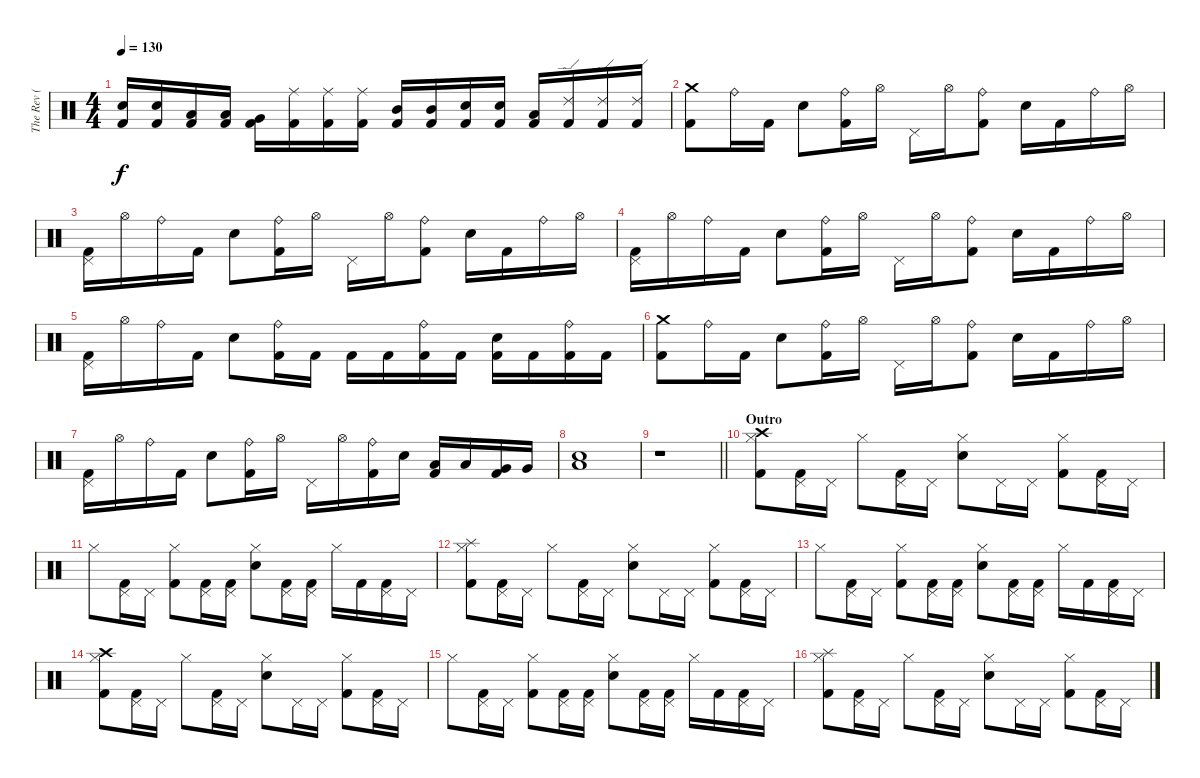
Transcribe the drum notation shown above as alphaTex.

\track ("The Rev ( Drums )" "The Rev ( ") {instrument percussion}
\staff {score}
\articulation defaults
\ts (4 4)
\tempo 130
\clef neutral
\ks c
("Snare (hit) 2" "Kick (hit) 2").16{dy f} ("Snare (hit) 2" "Kick (hit) 2").16 ("Low Tom (hit)" "Kick (hit) 2").16 ("Low Tom (hit)" "Kick (hit) 2").16 ("Very Low Tom (hit)" "Kick (hit) 2").16 ("Ride (middle)" "Kick (hit) 2").16 ("Ride (middle)" "Kick (hit) 2").16 ("Ride (middle)" "Kick (hit) 2").16 ("Mid Tom (hit)" "Kick (hit) 2").16 ("Mid Tom (hit)" "Kick (hit) 2").16 ("Snare (hit) 2" "Kick (hit) 2").16 ("Snare (hit) 2" "Kick (hit) 2").16 ("Low Tom (hit)" "Kick (hit) 2").16 ("Ride (edge) 2" "Kick (hit) 2").16 ("Ride (edge) 2" "Kick (hit) 2").16 ("Ride (edge) 2" "Kick (hit) 2").16 |
("Crash medium (hit)" "Kick (hit) 2").8 "Ride (bell)".16 "Kick (hit) 2".16 "Snare (hit) 2".8 ("Ride (bell)" "Kick (hit) 2").16 "Hi-Hat (open)".16 "Pedal Hi-Hat (hit)".16 "Hi-Hat (open)".16 ("Ride (bell)" "Kick (hit) 2").8 "Snare (hit) 2".16 "Kick (hit) 2".16 "Ride (bell)".16 "Hi-Hat (open)".16 |
("Pedal Hi-Hat (hit)" "Kick (hit) 2").16 "Hi-Hat (open)".16 "Ride (bell)".16 "Kick (hit) 2".16 "Snare (hit) 2".8 ("Ride (bell)" "Kick (hit) 2").16 "Hi-Hat (open)".16 "Pedal Hi-Hat (hit)".16 "Hi-Hat (open)".16 ("Ride (bell)" "Kick (hit) 2").8 "Snare (hit) 2".16 "Kick (hit) 2".16 "Ride (bell)".16 "Hi-Hat (open)".16 |
("Pedal Hi-Hat (hit)" "Kick (hit) 2").16 "Hi-Hat (open)".16 "Ride (bell)".16 "Kick (hit) 2".16 "Snare (hit) 2".8 ("Ride (bell)" "Kick (hit) 2").16 "Hi-Hat (open)".16 "Pedal Hi-Hat (hit)".16 "Hi-Hat (open)".16 ("Ride (bell)" "Kick (hit) 2").8 "Snare (hit) 2".16 "Kick (hit) 2".16 "Ride (bell)".16 "Hi-Hat (open)".16 |
("Pedal Hi-Hat (hit)" "Kick (hit) 2").16 "Hi-Hat (open)".16 "Ride (bell)".16 "Kick (hit) 2".16 "Snare (hit) 2".8 ("Ride (bell)" "Kick (hit) 2").16 "Kick (hit) 2".16 "Kick (hit) 2".16 "Kick (hit) 2".16 ("Ride (bell)" "Kick (hit) 2").16 "Kick (hit) 2".16 ("Snare (hit) 2" "Kick (hit) 2").16 "Kick (hit) 2".16 ("Ride (bell)" "Kick (hit) 2").16 "Kick (hit) 2".16 |
("Crash medium (hit)" "Kick (hit) 2").8 "Ride (bell)".16 "Kick (hit) 2".16 "Snare (hit) 2".8 ("Ride (bell)" "Kick (hit) 2").16 "Hi-Hat (open)".16 "Pedal Hi-Hat (hit)".16 "Hi-Hat (open)".16 ("Ride (bell)" "Kick (hit) 2").8 "Snare (hit) 2".16 "Kick (hit) 2".16 "Ride (bell)".16 "Hi-Hat (open)".16 |
("Pedal Hi-Hat (hit)" "Kick (hit) 2").16 "Hi-Hat (open)".16 "Ride (bell)".16 "Kick (hit) 2".16 "Snare (hit) 2".8 ("Ride (bell)" "Kick (hit) 2").16 "Hi-Hat (open)".16 "Pedal Hi-Hat (hit)".16 "Hi-Hat (open)".16 ("Ride (bell)" "Kick (hit) 2").16 "Snare (hit) 2".16 ("Low Tom (hit)" "Kick (hit) 2").16 "Low Tom (hit)".16 ("Very Low Tom (hit)" "Kick (hit) 2").16 "Very Low Tom (hit)".16 |
("Low Floor Tom (hit)" "Snare (hit) 2").1 |
\barLineRight lightlight
r.1 |
\section ("" "Outro")
("Crash high (hit)" "Hi-Hat (closed)" "Kick (hit) 2").8 ("Pedal Hi-Hat (hit)" "Kick (hit) 2").16 "Pedal Hi-Hat (hit)".16 "Hi-Hat (closed)".8 ("Pedal Hi-Hat (hit)" "Kick (hit) 2").16 "Pedal Hi-Hat (hit)".16 ("Hi-Hat (closed)" "Snare (hit) 2").8 "Pedal Hi-Hat (hit)".16 "Pedal Hi-Hat (hit)".16 ("Hi-Hat (closed)" "Kick (hit) 2").8 ("Pedal Hi-Hat (hit)" "Kick (hit) 2").16 "Pedal Hi-Hat (hit)".16 |
"Hi-Hat (closed)".8 ("Pedal Hi-Hat (hit)" "Kick (hit) 2").16 "Pedal Hi-Hat (hit)".16 ("Hi-Hat (closed)" "Kick (hit) 2").8 ("Pedal Hi-Hat (hit)" "Kick (hit) 2").16 ("Pedal Hi-Hat (hit)" "Kick (hit) 2").16 ("Hi-Hat (closed)" "Snare (hit) 2").8 ("Pedal Hi-Hat (hit)" "Kick (hit) 2").16 ("Pedal Hi-Hat (hit)" "Kick (hit) 2").16 "Hi-Hat (closed)".16 "Kick (hit) 2".16 ("Pedal Hi-Hat (hit)" "Kick (hit) 2").16 "Pedal Hi-Hat (hit)".16 |
("Splash (hit)" "Hi-Hat (closed)" "Kick (hit) 2").8 ("Pedal Hi-Hat (hit)" "Kick (hit) 2").16 "Pedal Hi-Hat (hit)".16 "Hi-Hat (closed)".8 ("Pedal Hi-Hat (hit)" "Kick (hit) 2").16 "Pedal Hi-Hat (hit)".16 ("Hi-Hat (closed)" "Snare (hit) 2").8 "Pedal Hi-Hat (hit)".16 "Pedal Hi-Hat (hit)".16 ("Hi-Hat (closed)" "Kick (hit) 2").8 ("Pedal Hi-Hat (hit)" "Kick (hit) 2").16 "Pedal Hi-Hat (hit)".16 |
"Hi-Hat (closed)".8 ("Pedal Hi-Hat (hit)" "Kick (hit) 2").16 "Pedal Hi-Hat (hit)".16 ("Hi-Hat (closed)" "Kick (hit) 2").8 ("Pedal Hi-Hat (hit)" "Kick (hit) 2").16 ("Pedal Hi-Hat (hit)" "Kick (hit) 2").16 ("Hi-Hat (closed)" "Snare (hit) 2").8 ("Pedal Hi-Hat (hit)" "Kick (hit) 2").16 ("Pedal Hi-Hat (hit)" "Kick (hit) 2").16 "Hi-Hat (closed)".16 "Kick (hit) 2".16 ("Pedal Hi-Hat (hit)" "Kick (hit) 2").16 "Pedal Hi-Hat (hit)".16 |
("Crash high (hit)" "Hi-Hat (closed)" "Kick (hit) 2").8 ("Pedal Hi-Hat (hit)" "Kick (hit) 2").16 "Pedal Hi-Hat (hit)".16 "Hi-Hat (closed)".8 ("Pedal Hi-Hat (hit)" "Kick (hit) 2").16 "Pedal Hi-Hat (hit)".16 ("Hi-Hat (closed)" "Snare (hit) 2").8 "Pedal Hi-Hat (hit)".16 "Pedal Hi-Hat (hit)".16 ("Hi-Hat (closed)" "Kick (hit) 2").8 ("Pedal Hi-Hat (hit)" "Kick (hit) 2").16 "Pedal Hi-Hat (hit)".16 |
"Hi-Hat (closed)".8 ("Pedal Hi-Hat (hit)" "Kick (hit) 2").16 "Pedal Hi-Hat (hit)".16 ("Hi-Hat (closed)" "Kick (hit) 2").8 ("Pedal Hi-Hat (hit)" "Kick (hit) 2").16 ("Pedal Hi-Hat (hit)" "Kick (hit) 2").16 ("Hi-Hat (closed)" "Snare (hit) 2").8 ("Pedal Hi-Hat (hit)" "Kick (hit) 2").16 ("Pedal Hi-Hat (hit)" "Kick (hit) 2").16 "Hi-Hat (closed)".16 "Kick (hit) 2".16 ("Pedal Hi-Hat (hit)" "Kick (hit) 2").16 "Pedal Hi-Hat (hit)".16 |
("Splash (hit)" "Hi-Hat (closed)" "Kick (hit) 2").8 ("Pedal Hi-Hat (hit)" "Kick (hit) 2").16 "Pedal Hi-Hat (hit)".16 "Hi-Hat (closed)".8 ("Pedal Hi-Hat (hit)" "Kick (hit) 2").16 "Pedal Hi-Hat (hit)".16 ("Hi-Hat (closed)" "Snare (hit) 2").8 "Pedal Hi-Hat (hit)".16 "Pedal Hi-Hat (hit)".16 ("Hi-Hat (closed)" "Kick (hit) 2").8 ("Pedal Hi-Hat (hit)" "Kick (hit) 2").16 "Pedal Hi-Hat (hit)".16
